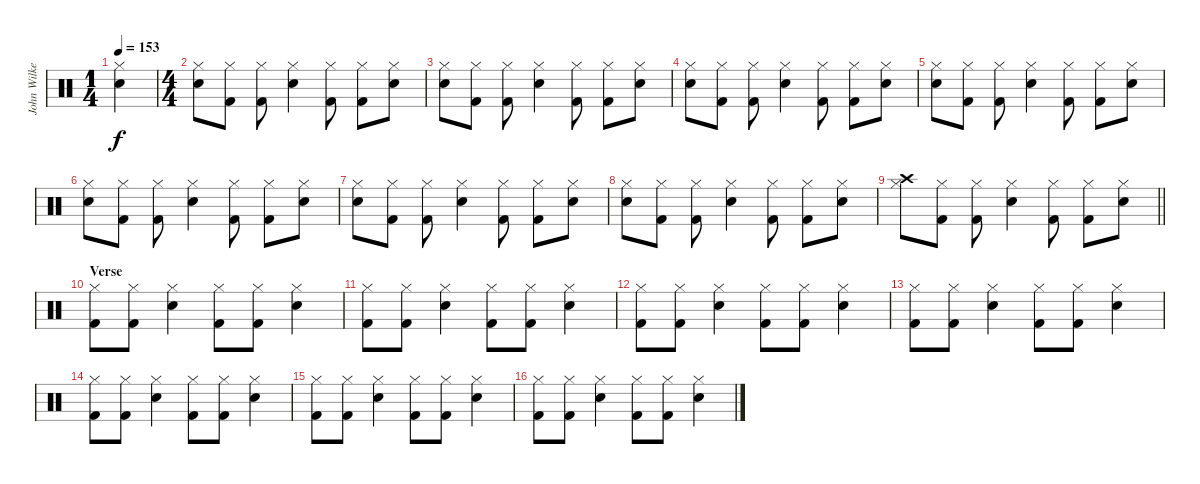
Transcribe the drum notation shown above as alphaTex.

\track ("John Wilkes (Percussion)" "John Wilke") {instrument percussion}
\staff {score}
\articulation defaults
\ts (1 4)
\tempo 153
\clef neutral
\ks c
("Snare (hit) 2" "Hi-Hat (closed)").4{dy f} |
\ts (4 4)
("Snare (hit) 2" "Hi-Hat (closed)").8 ("Kick (hit) 2" "Hi-Hat (closed)").8 ("Kick (hit) 2" "Hi-Hat (closed)").8 ("Snare (hit) 2" "Hi-Hat (closed)").4 ("Kick (hit) 2" "Hi-Hat (closed)").8 ("Kick (hit) 2" "Hi-Hat (closed)").8 ("Snare (hit) 2" "Hi-Hat (closed)").8 |
("Snare (hit) 2" "Hi-Hat (closed)").8 ("Kick (hit) 2" "Hi-Hat (closed)").8 ("Kick (hit) 2" "Hi-Hat (closed)").8 ("Snare (hit) 2" "Hi-Hat (closed)").4 ("Kick (hit) 2" "Hi-Hat (closed)").8 ("Kick (hit) 2" "Hi-Hat (closed)").8 ("Snare (hit) 2" "Hi-Hat (closed)").8 |
("Snare (hit) 2" "Hi-Hat (closed)").8 ("Kick (hit) 2" "Hi-Hat (closed)").8 ("Kick (hit) 2" "Hi-Hat (closed)").8 ("Snare (hit) 2" "Hi-Hat (closed)").4 ("Kick (hit) 2" "Hi-Hat (closed)").8 ("Kick (hit) 2" "Hi-Hat (closed)").8 ("Snare (hit) 2" "Hi-Hat (closed)").8 |
("Snare (hit) 2" "Hi-Hat (closed)").8 ("Kick (hit) 2" "Hi-Hat (closed)").8 ("Kick (hit) 2" "Hi-Hat (closed)").8 ("Snare (hit) 2" "Hi-Hat (closed)").4 ("Kick (hit) 2" "Hi-Hat (closed)").8 ("Kick (hit) 2" "Hi-Hat (closed)").8 ("Snare (hit) 2" "Hi-Hat (closed)").8 |
("Snare (hit) 2" "Hi-Hat (closed)").8 ("Kick (hit) 2" "Hi-Hat (closed)").8 ("Kick (hit) 2" "Hi-Hat (closed)").8 ("Snare (hit) 2" "Hi-Hat (closed)").4 ("Kick (hit) 2" "Hi-Hat (closed)").8 ("Kick (hit) 2" "Hi-Hat (closed)").8 ("Snare (hit) 2" "Hi-Hat (closed)").8 |
("Snare (hit) 2" "Hi-Hat (closed)").8 ("Kick (hit) 2" "Hi-Hat (closed)").8 ("Kick (hit) 2" "Hi-Hat (closed)").8 ("Snare (hit) 2" "Hi-Hat (closed)").4 ("Kick (hit) 2" "Hi-Hat (closed)").8 ("Kick (hit) 2" "Hi-Hat (closed)").8 ("Snare (hit) 2" "Hi-Hat (closed)").8 |
("Snare (hit) 2" "Hi-Hat (closed)").8 ("Kick (hit) 2" "Hi-Hat (closed)").8 ("Kick (hit) 2" "Hi-Hat (closed)").8 ("Snare (hit) 2" "Hi-Hat (closed)").4 ("Kick (hit) 2" "Hi-Hat (closed)").8 ("Kick (hit) 2" "Hi-Hat (closed)").8 ("Snare (hit) 2" "Hi-Hat (closed)").8 |
\barLineRight lightlight
("Crash high (hit)" "Hi-Hat (closed)").8 ("Kick (hit) 2" "Hi-Hat (closed)").8 ("Kick (hit) 2" "Hi-Hat (closed)").8 ("Snare (hit) 2" "Hi-Hat (closed)").4 ("Kick (hit) 2" "Hi-Hat (closed)").8 ("Kick (hit) 2" "Hi-Hat (closed)").8 ("Snare (hit) 2" "Hi-Hat (closed)").8 |
\section ("" "Verse")
("Kick (hit) 2" "Hi-Hat (closed)").8 ("Kick (hit) 2" "Hi-Hat (closed)").8 ("Snare (hit) 2" "Hi-Hat (closed)").4 ("Kick (hit) 2" "Hi-Hat (closed)").8 ("Kick (hit) 2" "Hi-Hat (closed)").8 ("Snare (hit) 2" "Hi-Hat (closed)").4 |
("Kick (hit) 2" "Hi-Hat (closed)").8 ("Kick (hit) 2" "Hi-Hat (closed)").8 ("Snare (hit) 2" "Hi-Hat (closed)").4 ("Kick (hit) 2" "Hi-Hat (closed)").8 ("Kick (hit) 2" "Hi-Hat (closed)").8 ("Snare (hit) 2" "Hi-Hat (closed)").4 |
("Kick (hit) 2" "Hi-Hat (closed)").8 ("Kick (hit) 2" "Hi-Hat (closed)").8 ("Snare (hit) 2" "Hi-Hat (closed)").4 ("Kick (hit) 2" "Hi-Hat (closed)").8 ("Kick (hit) 2" "Hi-Hat (closed)").8 ("Snare (hit) 2" "Hi-Hat (closed)").4 |
("Kick (hit) 2" "Hi-Hat (closed)").8 ("Kick (hit) 2" "Hi-Hat (closed)").8 ("Snare (hit) 2" "Hi-Hat (closed)").4 ("Kick (hit) 2" "Hi-Hat (closed)").8 ("Kick (hit) 2" "Hi-Hat (closed)").8 ("Snare (hit) 2" "Hi-Hat (closed)").4 |
("Kick (hit) 2" "Hi-Hat (closed)").8 ("Kick (hit) 2" "Hi-Hat (closed)").8 ("Snare (hit) 2" "Hi-Hat (closed)").4 ("Kick (hit) 2" "Hi-Hat (closed)").8 ("Kick (hit) 2" "Hi-Hat (closed)").8 ("Snare (hit) 2" "Hi-Hat (closed)").4 |
("Kick (hit) 2" "Hi-Hat (closed)").8 ("Kick (hit) 2" "Hi-Hat (closed)").8 ("Snare (hit) 2" "Hi-Hat (closed)").4 ("Kick (hit) 2" "Hi-Hat (closed)").8 ("Kick (hit) 2" "Hi-Hat (closed)").8 ("Snare (hit) 2" "Hi-Hat (closed)").4 |
("Kick (hit) 2" "Hi-Hat (closed)").8 ("Kick (hit) 2" "Hi-Hat (closed)").8 ("Snare (hit) 2" "Hi-Hat (closed)").4 ("Kick (hit) 2" "Hi-Hat (closed)").8 ("Kick (hit) 2" "Hi-Hat (closed)").8 ("Snare (hit) 2" "Hi-Hat (closed)").4
